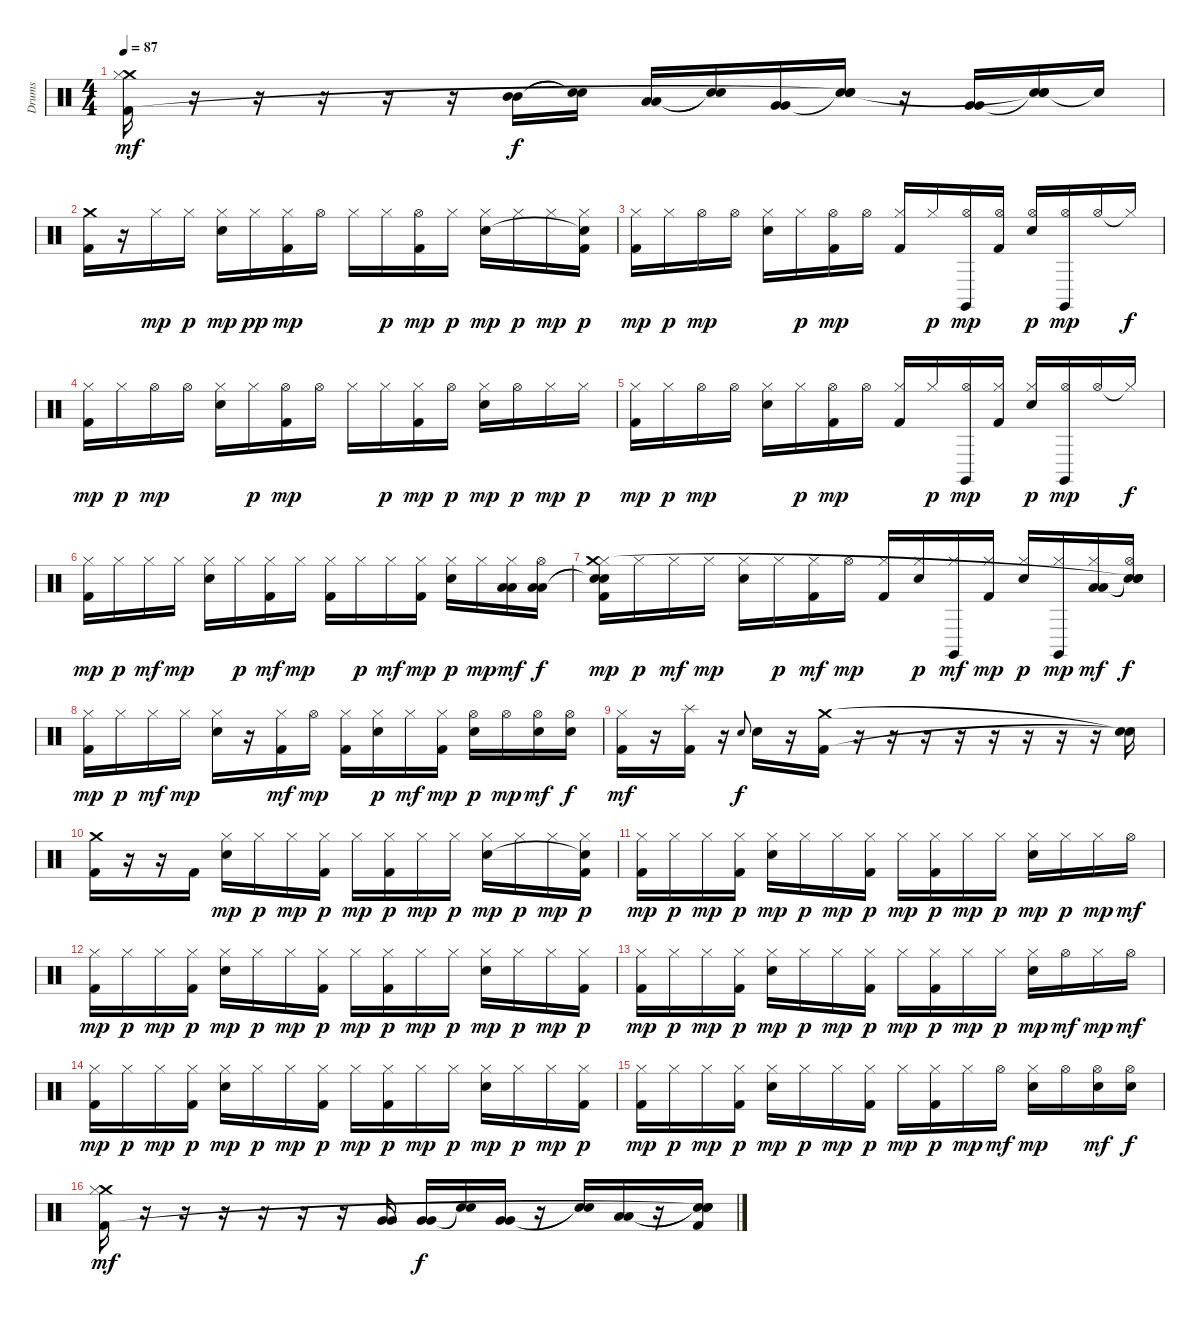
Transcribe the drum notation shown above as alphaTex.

\track ("Drums" "Drums") {instrument percussion}
\staff {score}
\articulation defaults
\ts (4 4)
\tempo 87
\clef neutral
\ks c
("Crash medium (hit)" "Hi-Hat (closed)" "Kick (hit) 2").16{dy mf} r.16 r.16 r.16 r.16 r.16 ("Mid Tom (hit)" "Mid Tom (hit)").16{dy f} ("Snare (hit)"{t} "Snare (hit)"{t}).16 ("Low Tom (hit)" "Low Tom (hit)").16 ("Snare (hit)"{t} "Snare (hit)"{t}).16 ("Very Low Tom (hit)" "Very Low Tom (hit)").16 ("Electric Snare (hit)" "Snare (hit)"{t} "Snare (hit)"{t}).16 r.16 ("Very Low Tom (hit)" "Very Low Tom (hit)").16 ("Electric Snare (hit)" "Snare (hit)"{t} "Snare (hit)"{t}).16 "Snare (hit)"{t}.16 |
("Crash medium (hit)" "Kick (hit) 2").16 r.16 "Hi-Hat (closed)".16{dy mp} "Hi-Hat (closed)".16{dy p} ("Hi-Hat (closed)" "Electric Snare (hit)").16{dy mp} "Hi-Hat (closed)".16{dy pp} ("Hi-Hat (closed)" "Kick (hit) 2").16{dy mp} "Hi-Hat (open)".16 "Hi-Hat (closed)".16 "Hi-Hat (closed)".16{dy p} ("Hi-Hat (open)" "Kick (hit) 2").16{dy mp} "Hi-Hat (closed)".16{dy p} ("Hi-Hat (closed)" "Electric Snare (hit)").16{dy mp} "Hi-Hat (closed)".16{dy p} "Hi-Hat (closed)".16{dy mp} ("Hi-Hat (closed)" "Snare (hit)"{t} "Kick (hit) 2").16{dy p} |
("Hi-Hat (closed)" "Kick (hit) 2").16{dy mp} "Hi-Hat (closed)".16{dy p} "Hi-Hat (open)".16{dy mp} "Hi-Hat (open)".16 ("Hi-Hat (closed)" "Electric Snare (hit)").16 "Hi-Hat (closed)".16{dy p} ("Hi-Hat (open)" "Kick (hit) 2").16{dy mp} "Hi-Hat (open)".16 ("Hi-Hat (closed)" "Kick (hit) 2").16 "Hi-Hat (closed)".16{dy p} ("Hi-Hat (open)" "Claves (hit)").16{dy mp} ("Hi-Hat (open)" "Kick (hit) 2").16 ("Hi-Hat (open)" "Electric Snare (hit)").16{dy p} ("Hi-Hat (open)" "Claves (hit)").16{dy mp} "Hi-Hat (open)".16 "Hi-Hat (closed)"{t}.16{dy f} |
("Hi-Hat (closed)" "Kick (hit) 2").16{dy mp} "Hi-Hat (closed)".16{dy p} "Hi-Hat (open)".16{dy mp} "Hi-Hat (open)".16 ("Hi-Hat (closed)" "Electric Snare (hit)").16 "Hi-Hat (closed)".16{dy p} ("Hi-Hat (open)" "Kick (hit) 2").16{dy mp} "Hi-Hat (open)".16 "Hi-Hat (closed)".16 "Hi-Hat (closed)".16{dy p} ("Hi-Hat (closed)" "Kick (hit) 2").16{dy mp} "Hi-Hat (open)".16{dy p} ("Hi-Hat (closed)" "Electric Snare (hit)").16{dy mp} "Hi-Hat (open)".16{dy p} "Hi-Hat (closed)".16{dy mp} "Hi-Hat (closed)".16{dy p} |
("Hi-Hat (closed)" "Kick (hit) 2").16{dy mp} "Hi-Hat (closed)".16{dy p} "Hi-Hat (open)".16{dy mp} "Hi-Hat (open)".16 ("Hi-Hat (closed)" "Electric Snare (hit)").16 "Hi-Hat (closed)".16{dy p} ("Hi-Hat (open)" "Kick (hit) 2").16{dy mp} "Hi-Hat (open)".16 ("Hi-Hat (closed)" "Kick (hit) 2").16 "Hi-Hat (closed)".16{dy p} ("Hi-Hat (open)" "Claves (hit)").16{dy mp} ("Hi-Hat (closed)" "Kick (hit) 2").16 ("Hi-Hat (closed)" "Electric Snare (hit)").16{dy p} ("Hi-Hat (open)" "Claves (hit)").16{dy mp} "Hi-Hat (open)".16 "Hi-Hat (closed)"{t}.16{dy f} |
("Hi-Hat (closed)" "Kick (hit) 2").16{dy mp} "Hi-Hat (closed)".16{dy p} "Hi-Hat (closed)".16{dy mf} "Hi-Hat (closed)".16{dy mp} ("Hi-Hat (closed)" "Electric Snare (hit)").16 "Hi-Hat (closed)".16{dy p} ("Hi-Hat (closed)" "Kick (hit) 2").16{dy mf} "Hi-Hat (closed)".16{dy mp} ("Hi-Hat (closed)" "Kick (hit) 2").16 "Hi-Hat (closed)".16{dy p} "Hi-Hat (closed)".16{dy mf} ("Hi-Hat (closed)" "Kick (hit) 2").16{dy mp} ("Hi-Hat (closed)" "Electric Snare (hit)").16{dy p} "Hi-Hat (closed)".16{dy mp} ("Hi-Hat (closed)" "Low Tom (hit)" "Low Tom (hit)").16{dy mf} ("Hi-Hat (open)" "Low Tom (hit)" "Low Tom (hit)").16{dy f} |
("Hi-Hat (closed)" "Snare (hit)"{t} "Snare (hit)"{t} "Crash medium (hit)" "Kick (hit) 2").16{dy mp} "Hi-Hat (closed)".16{dy p} "Hi-Hat (closed)".16{dy mf} "Hi-Hat (closed)".16{dy mp} ("Hi-Hat (closed)" "Electric Snare (hit)").16 "Hi-Hat (closed)".16{dy p} ("Hi-Hat (closed)" "Kick (hit) 2").16{dy mf} "Hi-Hat (open)".16{dy mp} ("Hi-Hat (closed)" "Kick (hit) 2").16 ("Hi-Hat (closed)" "Electric Snare (hit)").16{dy p} ("Hi-Hat (closed)" "Claves (hit)").16{dy mf} ("Hi-Hat (closed)" "Kick (hit) 2").16{dy mp} ("Hi-Hat (closed)" "Electric Snare (hit)").16{dy p} ("Hi-Hat (closed)" "Claves (hit)").16{dy mp} ("Hi-Hat (closed)" "Low Floor Tom (hit)" "Low Floor Tom (hit)").16{dy mf} ("Hi-Hat (open)" "Snare (hit)"{t} "Snare (hit)"{t} "Snare (hit)"{t}).16{dy f} |
("Hi-Hat (closed)" "Kick (hit) 2").16{dy mp} "Hi-Hat (closed)".16{dy p} "Hi-Hat (closed)".16{dy mf} "Hi-Hat (closed)".16{dy mp} ("Hi-Hat (closed)" "Electric Snare (hit)").16 r.16 ("Hi-Hat (closed)" "Kick (hit) 2").16{dy mf} "Hi-Hat (open)".16{dy mp} ("Hi-Hat (closed)" "Kick (hit) 2").16 ("Hi-Hat (closed)" "Electric Snare (hit)").16{dy p} "Hi-Hat (closed)".16{dy mf} ("Hi-Hat (closed)" "Kick (hit) 2").16{dy mp} ("Hi-Hat (open)" "Electric Snare (hit)").16{dy p} "Hi-Hat (open)".16{dy mp} ("Hi-Hat (open)" "Electric Snare (hit)").16{dy mf} ("Hi-Hat (open)" "Electric Snare (hit)").16{dy f} |
("Hi-Hat (closed)" "Kick (hit) 2").16{dy mf} r.16 ("Splash (hit)" "Kick (hit) 2").16 r.16 "Electric Snare (hit)".8{gr onbeat dy f} "Electric Snare (hit)".16 r.16 ("Crash medium (hit)" "Kick (hit) 2").16 r.16 r.16 r.16 r.16 r.16 r.16 r.16 r.16 ("Snare (hit)"{t} "Snare (hit)"{t}).16 |
("Crash medium (hit)" "Kick (hit) 2").16 r.16 r.16 "Kick (hit) 2".16 ("Hi-Hat (closed)" "Electric Snare (hit)").16{dy mp} "Hi-Hat (closed)".16{dy p} "Hi-Hat (closed)".16{dy mp} ("Hi-Hat (closed)" "Kick (hit) 2").16{dy p} "Hi-Hat (closed)".16{dy mp} ("Hi-Hat (closed)" "Kick (hit) 2").16{dy p} "Hi-Hat (closed)".16{dy mp} "Hi-Hat (closed)".16{dy p} ("Hi-Hat (closed)" "Electric Snare (hit)").16{dy mp} "Hi-Hat (closed)".16{dy p} "Hi-Hat (closed)".16{dy mp} ("Hi-Hat (closed)" "Snare (hit)"{t} "Kick (hit) 2").16{dy p} |
("Hi-Hat (closed)" "Kick (hit) 2").16{dy mp} "Hi-Hat (closed)".16{dy p} "Hi-Hat (closed)".16{dy mp} ("Hi-Hat (closed)" "Kick (hit) 2").16{dy p} ("Hi-Hat (closed)" "Electric Snare (hit)").16{dy mp} "Hi-Hat (closed)".16{dy p} "Hi-Hat (closed)".16{dy mp} ("Hi-Hat (closed)" "Kick (hit) 2").16{dy p} "Hi-Hat (closed)".16{dy mp} ("Hi-Hat (closed)" "Kick (hit) 2").16{dy p} "Hi-Hat (closed)".16{dy mp} "Hi-Hat (closed)".16{dy p} ("Hi-Hat (closed)" "Electric Snare (hit)").16{dy mp} "Hi-Hat (closed)".16{dy p} "Hi-Hat (closed)".16{dy mp} "Hi-Hat (open)".16{dy mf} |
("Hi-Hat (closed)" "Kick (hit) 2").16{dy mp} "Hi-Hat (closed)".16{dy p} "Hi-Hat (closed)".16{dy mp} ("Hi-Hat (closed)" "Kick (hit) 2").16{dy p} ("Hi-Hat (closed)" "Electric Snare (hit)").16{dy mp} "Hi-Hat (closed)".16{dy p} "Hi-Hat (closed)".16{dy mp} ("Hi-Hat (closed)" "Kick (hit) 2").16{dy p} "Hi-Hat (closed)".16{dy mp} ("Hi-Hat (closed)" "Kick (hit) 2").16{dy p} "Hi-Hat (closed)".16{dy mp} "Hi-Hat (closed)".16{dy p} ("Hi-Hat (closed)" "Electric Snare (hit)").16{dy mp} "Hi-Hat (closed)".16{dy p} "Hi-Hat (closed)".16{dy mp} ("Hi-Hat (closed)" "Kick (hit) 2").16{dy p} |
("Hi-Hat (closed)" "Kick (hit) 2").16{dy mp} "Hi-Hat (closed)".16{dy p} "Hi-Hat (closed)".16{dy mp} ("Hi-Hat (closed)" "Kick (hit) 2").16{dy p} ("Hi-Hat (closed)" "Electric Snare (hit)").16{dy mp} "Hi-Hat (closed)".16{dy p} "Hi-Hat (closed)".16{dy mp} ("Hi-Hat (closed)" "Kick (hit) 2").16{dy p} "Hi-Hat (closed)".16{dy mp} ("Hi-Hat (closed)" "Kick (hit) 2").16{dy p} "Hi-Hat (closed)".16{dy mp} "Hi-Hat (closed)".16{dy p} ("Hi-Hat (closed)" "Electric Snare (hit)").16{dy mp} "Hi-Hat (open)".16{dy mf} "Hi-Hat (closed)".16{dy mp} "Hi-Hat (open)".16{dy mf} |
("Hi-Hat (closed)" "Kick (hit) 2").16{dy mp} "Hi-Hat (closed)".16{dy p} "Hi-Hat (closed)".16{dy mp} ("Hi-Hat (closed)" "Kick (hit) 2").16{dy p} ("Hi-Hat (closed)" "Electric Snare (hit)").16{dy mp} "Hi-Hat (closed)".16{dy p} "Hi-Hat (closed)".16{dy mp} ("Hi-Hat (closed)" "Kick (hit) 2").16{dy p} "Hi-Hat (closed)".16{dy mp} ("Hi-Hat (closed)" "Kick (hit) 2").16{dy p} "Hi-Hat (closed)".16{dy mp} "Hi-Hat (closed)".16{dy p} ("Hi-Hat (closed)" "Electric Snare (hit)").16{dy mp} "Hi-Hat (closed)".16{dy p} "Hi-Hat (closed)".16{dy mp} ("Hi-Hat (closed)" "Kick (hit) 2").16{dy p} |
("Hi-Hat (closed)" "Kick (hit) 2").16{dy mp} "Hi-Hat (closed)".16{dy p} "Hi-Hat (closed)".16{dy mp} ("Hi-Hat (closed)" "Kick (hit) 2").16{dy p} ("Hi-Hat (closed)" "Electric Snare (hit)").16{dy mp} "Hi-Hat (closed)".16{dy p} "Hi-Hat (closed)".16{dy mp} ("Hi-Hat (closed)" "Kick (hit) 2").16{dy p} "Hi-Hat (closed)".16{dy mp} ("Hi-Hat (closed)" "Kick (hit) 2").16{dy p} "Hi-Hat (closed)".16{dy mp} "Hi-Hat (open)".16{dy mf} ("Hi-Hat (closed)" "Electric Snare (hit)").16{dy mp} "Hi-Hat (open)".16 ("Hi-Hat (open)" "Electric Snare (hit)").16{dy mf} ("Hi-Hat (open)" "Electric Snare (hit)").16{dy f} |
("Crash medium (hit)" "Hi-Hat (closed)" "Kick (hit) 2").16{dy mf} r.16 r.16 r.16 r.16 r.16 r.16 ("Very Low Tom (hit)" "Very Low Tom (hit)").16 ("Very Low Tom (hit)" "Very Low Tom (hit)").16{dy f} ("Snare (hit)"{t} "Snare (hit)"{t}).16 ("Very Low Tom (hit)" "Very Low Tom (hit)").16 r.16 ("Snare (hit)"{t} "Snare (hit)"{t}).16 ("Low Floor Tom (hit)" "Low Floor Tom (hit)").16 r.16 ("Snare (hit)"{t} "Snare (hit)"{t} "Snare (hit)"{t} "Kick (hit) 2").16
